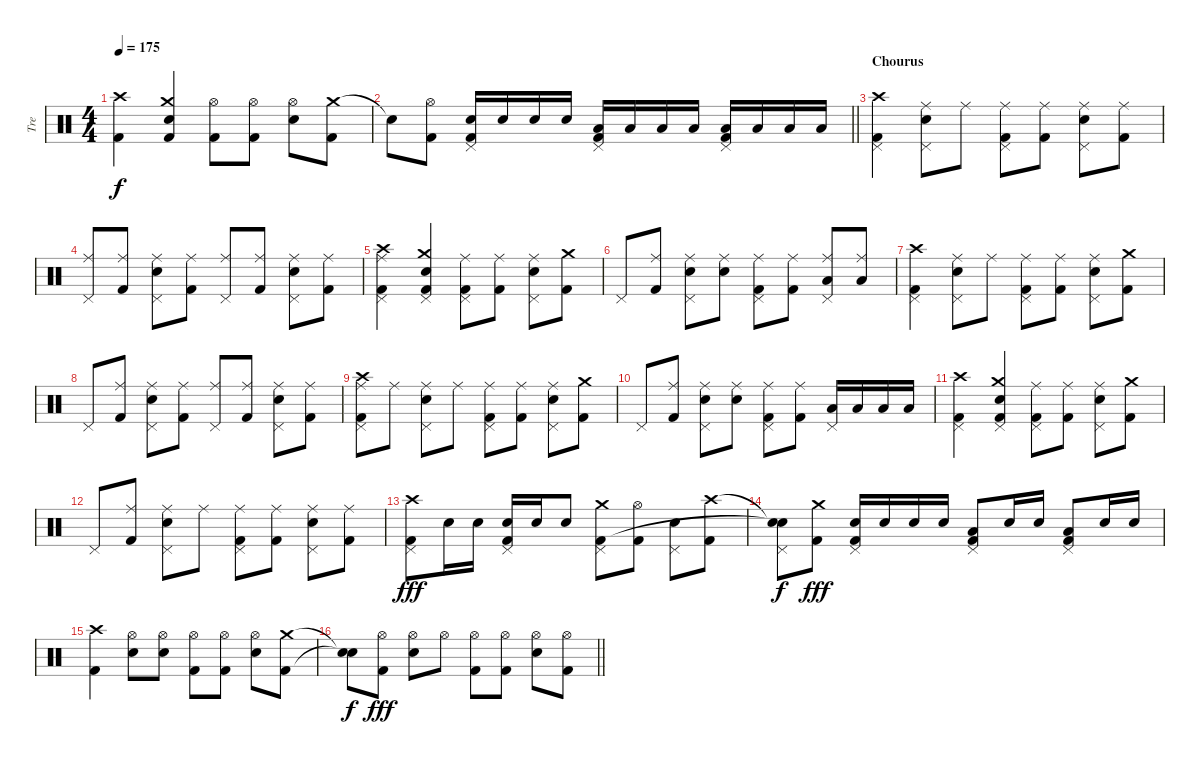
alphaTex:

\track ("Tre" "Tre") {instrument percussion}
\staff {score}
\articulation defaults
\ts (4 4)
\tempo 175
\clef neutral
\ks c
("Crash high (hit)" "Kick (hit) 2").4{dy f} ("Crash medium (hit)" "Snare (hit) 2" "Kick (hit) 2").4 ("Hi-Hat (open)" "Kick (hit) 2").8 ("Hi-Hat (open)" "Kick (hit) 2").8 ("Hi-Hat (open)" "Snare (hit) 2").8 ("Crash medium (hit)" "Kick (hit) 2").8 |
\barLineRight lightlight "Snare (hit)"{t}.8
("Hi-Hat (open)" "Kick (hit) 2").8 ("Snare (hit) 2" "Pedal Hi-Hat (hit)" "Kick (hit) 2").16 "Snare (hit) 2".16 "Snare (hit) 2".16 "Snare (hit) 2".16 ("Low Tom (hit)" "Pedal Hi-Hat (hit)" "Kick (hit) 2").16 "Low Tom (hit)".16 "Low Tom (hit)".16 "Low Tom (hit)".16 ("Low Floor Tom (hit)" "Pedal Hi-Hat (hit)" "Kick (hit) 2").16 "Low Floor Tom (hit)".16 "Low Floor Tom (hit)".16 "Low Floor Tom (hit)".16 |
\section ("" "Chourus")
("Crash high (hit)" "Pedal Hi-Hat (hit)" "Kick (hit) 2").4 ("Ride (middle)" "Snare (hit) 2" "Pedal Hi-Hat (hit)").8 "Ride (middle)".8 ("Ride (middle)" "Pedal Hi-Hat (hit)" "Kick (hit) 2").8 ("Ride (middle)" "Kick (hit) 2").8 ("Ride (middle)" "Snare (hit) 2" "Pedal Hi-Hat (hit)").8 ("Ride (middle)" "Kick (hit) 2").8 |
("Ride (middle)" "Pedal Hi-Hat (hit)").8 ("Ride (middle)" "Kick (hit) 2").8 ("Ride (middle)" "Snare (hit) 2" "Pedal Hi-Hat (hit)").8 ("Ride (middle)" "Kick (hit) 2").8 ("Ride (middle)" "Pedal Hi-Hat (hit)").8 ("Ride (middle)" "Kick (hit) 2").8 ("Ride (middle)" "Snare (hit) 2" "Pedal Hi-Hat (hit)").8 ("Ride (middle)" "Kick (hit) 2").8 |
("Crash high (hit)" "Ride (middle)" "Pedal Hi-Hat (hit)" "Kick (hit) 2").4 ("Crash medium (hit)" "Snare (hit) 2" "Pedal Hi-Hat (hit)" "Kick (hit) 2").4 ("Ride (middle)" "Pedal Hi-Hat (hit)" "Kick (hit) 2").8 ("Ride (middle)" "Kick (hit) 2").8 ("Ride (middle)" "Snare (hit) 2" "Pedal Hi-Hat (hit)").8 ("Crash medium (hit)" "Kick (hit) 2").8 |
"Pedal Hi-Hat (hit)".8 ("Ride (middle)" "Kick (hit) 2").8 ("Ride (middle)" "Snare (hit) 2" "Pedal Hi-Hat (hit)").8 ("Ride (middle)" "Snare (hit) 2").8 ("Ride (middle)" "Pedal Hi-Hat (hit)" "Kick (hit) 2").8 ("Ride (middle)" "Kick (hit) 2").8 ("Ride (middle)" "Low Tom (hit)" "Pedal Hi-Hat (hit)").8 ("Ride (middle)" "Low Tom (hit)").8 |
("Crash high (hit)" "Pedal Hi-Hat (hit)" "Kick (hit) 2").4 ("Ride (middle)" "Snare (hit) 2" "Pedal Hi-Hat (hit)").8 "Ride (middle)".8 ("Ride (middle)" "Pedal Hi-Hat (hit)" "Kick (hit) 2").8 ("Ride (middle)" "Kick (hit) 2").8 ("Ride (middle)" "Snare (hit) 2" "Pedal Hi-Hat (hit)").8 ("Crash medium (hit)" "Kick (hit) 2").8 |
"Pedal Hi-Hat (hit)".8 ("Ride (middle)" "Kick (hit) 2").8 ("Ride (middle)" "Snare (hit) 2" "Pedal Hi-Hat (hit)").8 ("Ride (middle)" "Kick (hit) 2").8 ("Ride (middle)" "Pedal Hi-Hat (hit)").8 ("Ride (middle)" "Kick (hit) 2").8 ("Ride (middle)" "Snare (hit) 2" "Pedal Hi-Hat (hit)").8 ("Ride (middle)" "Kick (hit) 2").8 |
("Crash high (hit)" "Ride (middle)" "Pedal Hi-Hat (hit)" "Kick (hit) 2").8 "Ride (middle)".8 ("Ride (middle)" "Snare (hit) 2" "Pedal Hi-Hat (hit)").8 "Ride (middle)".8 ("Ride (middle)" "Pedal Hi-Hat (hit)" "Kick (hit) 2").8 ("Ride (middle)" "Kick (hit) 2").8 ("Ride (middle)" "Snare (hit) 2" "Pedal Hi-Hat (hit)").8 ("Crash medium (hit)" "Kick (hit) 2").8 |
"Pedal Hi-Hat (hit)".8 ("Ride (middle)" "Kick (hit) 2").8 ("Ride (middle)" "Snare (hit) 2" "Pedal Hi-Hat (hit)").8 ("Ride (middle)" "Snare (hit) 2").8 ("Ride (middle)" "Pedal Hi-Hat (hit)" "Kick (hit) 2").8 ("Ride (middle)" "Kick (hit) 2").8 ("Low Tom (hit)" "Pedal Hi-Hat (hit)").16 "Low Tom (hit)".16 "Low Tom (hit)".16 "Low Tom (hit)".16 |
("Crash high (hit)" "Pedal Hi-Hat (hit)" "Kick (hit) 2").4 ("Crash medium (hit)" "Snare (hit) 2" "Pedal Hi-Hat (hit)" "Kick (hit) 2").4 ("Ride (middle)" "Pedal Hi-Hat (hit)" "Kick (hit) 2").8 ("Ride (middle)" "Kick (hit) 2").8 ("Ride (middle)" "Snare (hit) 2" "Pedal Hi-Hat (hit)").8 ("Crash medium (hit)" "Kick (hit) 2").8 |
"Pedal Hi-Hat (hit)".8 ("Ride (middle)" "Kick (hit) 2").8 ("Ride (middle)" "Snare (hit) 2" "Pedal Hi-Hat (hit)").8 "Ride (middle)".8 ("Ride (middle)" "Pedal Hi-Hat (hit)" "Kick (hit) 2").8 ("Ride (middle)" "Kick (hit) 2").8 ("Ride (middle)" "Snare (hit) 2" "Pedal Hi-Hat (hit)").8 ("Ride (middle)" "Kick (hit) 2").8 |
("Crash high (hit)" "Pedal Hi-Hat (hit)" "Kick (hit) 2").8{dy fff} "Snare (hit) 2".16 "Snare (hit) 2".16 ("Snare (hit) 2" "Pedal Hi-Hat (hit)" "Kick (hit) 2").16 "Snare (hit) 2".16 "Snare (hit) 2".8 ("Crash medium (hit)" "Pedal Hi-Hat (hit)" "Kick (hit) 2").8 ("Hi-Hat (open)" "Kick (hit) 2").8 ("Snare (hit) 2" "Pedal Hi-Hat (hit)").8 ("Crash high (hit)" "Kick (hit) 2").8 |
("Snare (hit)"{t} "Pedal Hi-Hat (hit)" "Snare (hit)"{t}).8{dy f} ("Crash medium (hit)" "Kick (hit) 2").8{dy fff} ("Snare (hit) 2" "Pedal Hi-Hat (hit)" "Kick (hit) 2").16 "Snare (hit) 2".16 "Snare (hit) 2".16 "Snare (hit) 2".16 ("Low Tom (hit)" "Pedal Hi-Hat (hit)" "Kick (hit) 2").8 "Snare (hit) 2".16 "Snare (hit) 2".16 ("Low Floor Tom (hit)" "Pedal Hi-Hat (hit)" "Kick (hit) 2").8 "Snare (hit) 2".16 "Snare (hit) 2".16 |
("Crash high (hit)" "Kick (hit) 2").4 ("Hi-Hat (open)" "Snare (hit) 2").8 ("Hi-Hat (open)" "Snare (hit) 2").8 ("Hi-Hat (open)" "Kick (hit) 2").8 ("Hi-Hat (open)" "Kick (hit) 2").8 ("Hi-Hat (open)" "Snare (hit) 2").8 ("Crash medium (hit)" "Kick (hit) 2").8 |
\barLineRight lightlight
("Snare (hit)"{t} "Snare (hit)"{t}).8{dy f} ("Hi-Hat (open)" "Kick (hit) 2").8{dy fff} ("Hi-Hat (open)" "Snare (hit) 2").8 "Hi-Hat (open)".8 ("Hi-Hat (open)" "Kick (hit) 2").8 ("Hi-Hat (open)" "Kick (hit) 2").8 ("Hi-Hat (open)" "Snare (hit) 2").8 ("Hi-Hat (open)" "Kick (hit) 2").8
